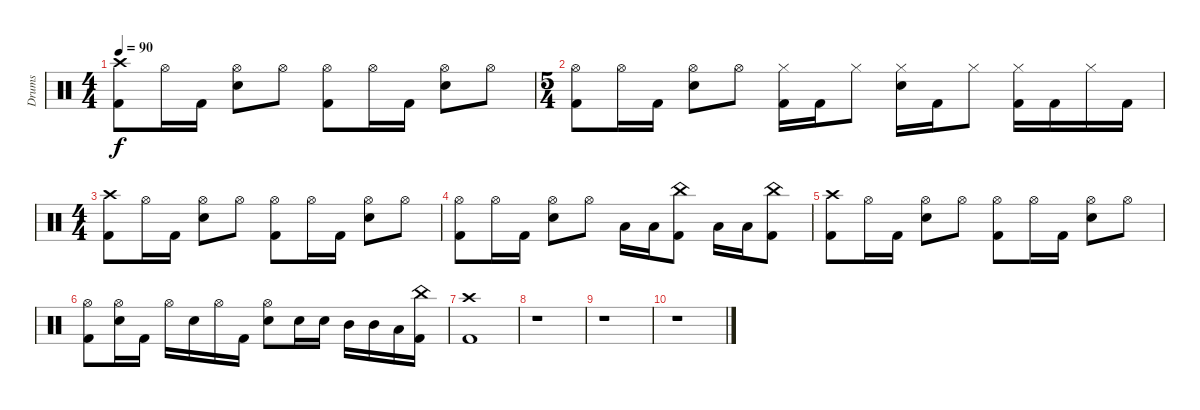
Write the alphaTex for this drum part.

\track ("Drums" "Drums") {instrument percussion}
\staff {score}
\articulation defaults
\ts (4 4)
\tempo 90
\clef neutral
\ks c
("Crash high (hit)" "Kick (hit) 2").8{dy f} "Hi-Hat (open)".16 "Kick (hit) 2".16 ("Hi-Hat (open)" "Electric Snare (hit)").8 "Hi-Hat (open)".8 ("Hi-Hat (open)" "Kick (hit) 2").8 "Hi-Hat (open)".16 "Kick (hit) 2".16 ("Hi-Hat (open)" "Electric Snare (hit)").8 "Hi-Hat (open)".8 |
\ts (5 4)
("Hi-Hat (open)" "Kick (hit) 2").8 "Hi-Hat (open)".16 "Kick (hit) 2".16 ("Hi-Hat (open)" "Electric Snare (hit)").8 "Hi-Hat (open)".8 ("Hi-Hat (closed)" "Kick (hit) 2").16 "Kick (hit) 2".16 "Hi-Hat (closed)".8 ("Hi-Hat (closed)" "Electric Snare (hit)").16 "Kick (hit) 2".16 "Hi-Hat (closed)".8 ("Hi-Hat (closed)" "Kick (hit) 2").16 "Kick (hit) 2".16 "Hi-Hat (closed)".16 "Kick (hit) 2".16 |
\ts (4 4)
("Crash high (hit)" "Kick (hit) 2").8 "Hi-Hat (open)".16 "Kick (hit) 2".16 ("Hi-Hat (open)" "Electric Snare (hit)").8 "Hi-Hat (open)".8 ("Hi-Hat (open)" "Kick (hit) 2").8 "Hi-Hat (open)".16 "Kick (hit) 2".16 ("Hi-Hat (open)" "Electric Snare (hit)").8 "Hi-Hat (open)".8 |
("Hi-Hat (open)" "Kick (hit) 2").8 "Hi-Hat (open)".16 "Kick (hit) 2".16 ("Hi-Hat (open)" "Electric Snare (hit)").8 "Hi-Hat (open)".8 "Low Tom (hit)".16 "Low Tom (hit)".16 ("China (hit)" "Kick (hit) 2").8 "Low Tom (hit)".16 "Low Tom (hit)".16 ("China (hit)" "Kick (hit) 2").8 |
("Crash high (hit)" "Kick (hit) 2").8 "Hi-Hat (open)".16 "Kick (hit) 2".16 ("Hi-Hat (open)" "Electric Snare (hit)").8 "Hi-Hat (open)".8 ("Hi-Hat (open)" "Kick (hit) 2").8 "Hi-Hat (open)".16 "Kick (hit) 2".16 ("Hi-Hat (open)" "Electric Snare (hit)").8 "Hi-Hat (open)".8 |
("Hi-Hat (open)" "Kick (hit) 2").8 ("Hi-Hat (open)" "Electric Snare (hit)").16 "Kick (hit) 2".16 "Hi-Hat (open)".16 "Electric Snare (hit)".16 "Hi-Hat (open)".16 "Kick (hit) 2".16 ("Hi-Hat (open)" "Electric Snare (hit)").8 "Electric Snare (hit)".16 "Electric Snare (hit)".16 "Mid Tom (hit)".16 "Mid Tom (hit)".16 "Low Tom (hit)".16 ("China (hit)" "Kick (hit) 2").16 |
("Crash high (hit)" "Kick (hit) 2").1 |
r.1 |
r.1 |
r.1
